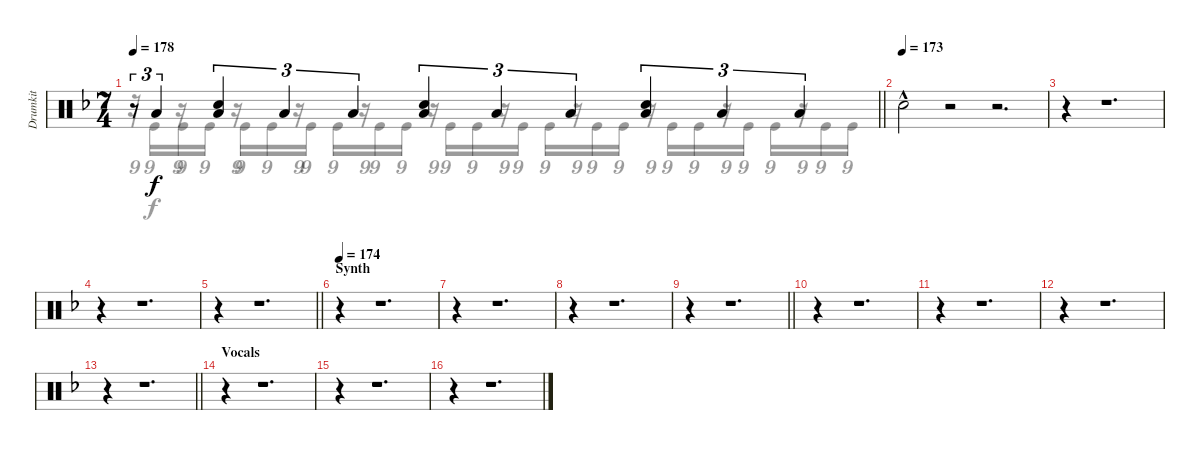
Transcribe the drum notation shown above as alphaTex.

\track ("Drumkit" "Drumkit") {instrument percussion}
\staff {score}
\articulation defaults
\voice
\ts (7 4)
\tempo 178
\clef neutral
\barLineRight lightlight
\ks dminor
r.8{tu (3 2) dy f} "Low Floor Tom (hit)".4{tu (3 2)} ("Low Floor Tom (hit)" "Snare (hit) 2").4{tu (3 2)} "Low Floor Tom (hit)".4{tu (3 2)} "Low Floor Tom (hit)".4{tu (3 2)} ("Low Floor Tom (hit)" "Snare (hit) 2").4{tu (3 2)} "Low Floor Tom (hit)".4{tu (3 2)} "Low Floor Tom (hit)".4{tu (3 2)} ("Low Floor Tom (hit)" "Snare (hit) 2").4{tu (3 2)} "Low Floor Tom (hit)".4{tu (3 2)} "Low Floor Tom (hit)".4{tu (3 2)} |
\tempo (173)
"Snare (hit) 2"{hac}.2 r.2 r.2{d} |
r.4 r.1{d} |
r.4 r.1{d} |
\barLineRight lightlight
r.4 r.1{d} |
\section ("" "Synth")
\tempo 174
r.4 r.1{d} |
r.4 r.1{d} |
r.4 r.1{d} |
\barLineRight lightlight
r.4 r.1{d} |
r.4 r.1{d} |
r.4 r.1{d} |
r.4 r.1{d} |
\barLineRight lightlight
r.4 r.1{d} |
\section ("" "Vocals")
r.4 r.1{d} |
r.4 r.1{d} |
r.4 r.1{d}
\voice
\clef neutral
\ottava regular
\simile none
\barLineRight lightlight
\ks dminor
r.32{tu (9 8) dy f} "Kick (hit)".16{tu (9 8)} r.16{tu (9 8)} "Kick (hit)".16{tu (9 8)} "Kick (hit)".16{tu (9 8)} r.16{tu (9 8)} "Kick (hit)".16{tu (9 8)} "Kick (hit)".16{tu (9 8)} r.16{tu (9 8)} "Kick (hit)".16{tu (9 8)} "Kick (hit)".16{tu (9 8)} r.16{tu (9 8)} "Kick (hit)".16{tu (9 8)} "Kick (hit)".16{tu (9 8)} r.16{tu (9 8)} "Kick (hit)".16{tu (9 8)} "Kick (hit)".16{tu (9 8)} r.16{tu (9 8)} "Kick (hit)".16{tu (9 8)} "Kick (hit)".16{tu (9 8)} r.16{tu (9 8)} "Kick (hit)".16{tu (9 8)} "Kick (hit)".16{tu (9 8)} r.16{tu (9 8)} "Kick (hit)".16{tu (9 8)} "Kick (hit)".16{tu (9 8)} r.16{tu (9 8)} "Kick (hit)".16{tu (9 8)} "Kick (hit)".16{tu (9 8)} r.16{tu (9 8)} "Kick (hit)".16{tu (9 8)} "Kick (hit)".16{tu (9 8)} |
|
|
|
\barLineRight lightlight
|
|
|
|
\barLineRight lightlight
|
|
|
|
\barLineRight lightlight
|
|
|
